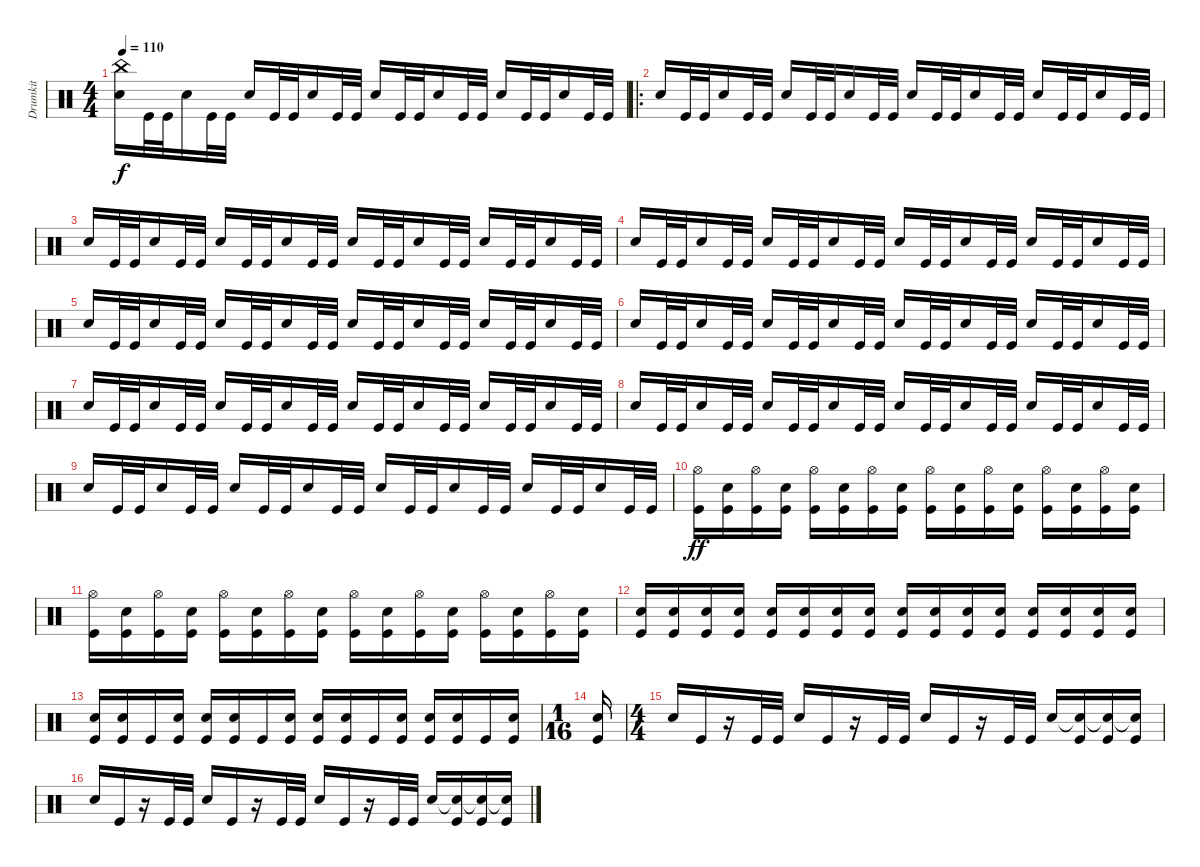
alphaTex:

\track ("Drumkit" "Drumkit") {instrument percussion}
\staff {score}
\articulation defaults
\ts (4 4)
\tempo 110
\clef neutral
\ks c
("Snare (hit) 2" "China (hit)").16{dy f} "Kick (hit)".32 "Kick (hit)".32 "Snare (hit) 2".16 "Kick (hit)".32 "Kick (hit)".32 "Snare (hit) 2".16 "Kick (hit)".32 "Kick (hit)".32 "Snare (hit) 2".16 "Kick (hit)".32 "Kick (hit)".32 "Snare (hit) 2".16 "Kick (hit)".32 "Kick (hit)".32 "Snare (hit) 2".16 "Kick (hit)".32 "Kick (hit)".32 "Snare (hit) 2".16 "Kick (hit)".32 "Kick (hit)".32 "Snare (hit) 2".16 "Kick (hit)".32 "Kick (hit)".32 |
\ro "Snare (hit) 2".16 "Kick (hit)".32 "Kick (hit)".32 "Snare (hit) 2".16 "Kick (hit)".32 "Kick (hit)".32 "Snare (hit) 2".16 "Kick (hit)".32 "Kick (hit)".32 "Snare (hit) 2".16 "Kick (hit)".32 "Kick (hit)".32 "Snare (hit) 2".16 "Kick (hit)".32 "Kick (hit)".32 "Snare (hit) 2".16 "Kick (hit)".32 "Kick (hit)".32 "Snare (hit) 2".16 "Kick (hit)".32 "Kick (hit)".32 "Snare (hit) 2".16 "Kick (hit)".32 "Kick (hit)".32
|
"Snare (hit) 2".16 "Kick (hit)".32 "Kick (hit)".32 "Snare (hit) 2".16 "Kick (hit)".32 "Kick (hit)".32 "Snare (hit) 2".16 "Kick (hit)".32 "Kick (hit)".32 "Snare (hit) 2".16 "Kick (hit)".32 "Kick (hit)".32 "Snare (hit) 2".16 "Kick (hit)".32 "Kick (hit)".32 "Snare (hit) 2".16 "Kick (hit)".32 "Kick (hit)".32 "Snare (hit) 2".16 "Kick (hit)".32 "Kick (hit)".32 "Snare (hit) 2".16 "Kick (hit)".32 "Kick (hit)".32 |
"Snare (hit) 2".16 "Kick (hit)".32 "Kick (hit)".32 "Snare (hit) 2".16 "Kick (hit)".32 "Kick (hit)".32 "Snare (hit) 2".16 "Kick (hit)".32 "Kick (hit)".32 "Snare (hit) 2".16 "Kick (hit)".32 "Kick (hit)".32 "Snare (hit) 2".16 "Kick (hit)".32 "Kick (hit)".32 "Snare (hit) 2".16 "Kick (hit)".32 "Kick (hit)".32 "Snare (hit) 2".16 "Kick (hit)".32 "Kick (hit)".32 "Snare (hit) 2".16 "Kick (hit)".32 "Kick (hit)".32 |
"Snare (hit) 2".16 "Kick (hit)".32 "Kick (hit)".32 "Snare (hit) 2".16 "Kick (hit)".32 "Kick (hit)".32 "Snare (hit) 2".16 "Kick (hit)".32 "Kick (hit)".32 "Snare (hit) 2".16 "Kick (hit)".32 "Kick (hit)".32 "Snare (hit) 2".16 "Kick (hit)".32 "Kick (hit)".32 "Snare (hit) 2".16 "Kick (hit)".32 "Kick (hit)".32 "Snare (hit) 2".16 "Kick (hit)".32 "Kick (hit)".32 "Snare (hit) 2".16 "Kick (hit)".32 "Kick (hit)".32 |
"Snare (hit) 2".16 "Kick (hit)".32 "Kick (hit)".32 "Snare (hit) 2".16 "Kick (hit)".32 "Kick (hit)".32 "Snare (hit) 2".16 "Kick (hit)".32 "Kick (hit)".32 "Snare (hit) 2".16 "Kick (hit)".32 "Kick (hit)".32 "Snare (hit) 2".16 "Kick (hit)".32 "Kick (hit)".32 "Snare (hit) 2".16 "Kick (hit)".32 "Kick (hit)".32 "Snare (hit) 2".16 "Kick (hit)".32 "Kick (hit)".32 "Snare (hit) 2".16 "Kick (hit)".32 "Kick (hit)".32 |
"Snare (hit) 2".16 "Kick (hit)".32 "Kick (hit)".32 "Snare (hit) 2".16 "Kick (hit)".32 "Kick (hit)".32 "Snare (hit) 2".16 "Kick (hit)".32 "Kick (hit)".32 "Snare (hit) 2".16 "Kick (hit)".32 "Kick (hit)".32 "Snare (hit) 2".16 "Kick (hit)".32 "Kick (hit)".32 "Snare (hit) 2".16 "Kick (hit)".32 "Kick (hit)".32 "Snare (hit) 2".16 "Kick (hit)".32 "Kick (hit)".32 "Snare (hit) 2".16 "Kick (hit)".32 "Kick (hit)".32 |
"Snare (hit) 2".16 "Kick (hit)".32 "Kick (hit)".32 "Snare (hit) 2".16 "Kick (hit)".32 "Kick (hit)".32 "Snare (hit) 2".16 "Kick (hit)".32 "Kick (hit)".32 "Snare (hit) 2".16 "Kick (hit)".32 "Kick (hit)".32 "Snare (hit) 2".16 "Kick (hit)".32 "Kick (hit)".32 "Snare (hit) 2".16 "Kick (hit)".32 "Kick (hit)".32 "Snare (hit) 2".16 "Kick (hit)".32 "Kick (hit)".32 "Snare (hit) 2".16 "Kick (hit)".32 "Kick (hit)".32 |
"Snare (hit) 2".16 "Kick (hit)".32 "Kick (hit)".32 "Snare (hit) 2".16 "Kick (hit)".32 "Kick (hit)".32 "Snare (hit) 2".16 "Kick (hit)".32 "Kick (hit)".32 "Snare (hit) 2".16 "Kick (hit)".32 "Kick (hit)".32 "Snare (hit) 2".16 "Kick (hit)".32 "Kick (hit)".32 "Snare (hit) 2".16 "Kick (hit)".32 "Kick (hit)".32 "Snare (hit) 2".16 "Kick (hit)".32 "Kick (hit)".32 "Snare (hit) 2".16 "Kick (hit)".32 "Kick (hit)".32 |
("Kick (hit)" "Hi-Hat (open)").16{dy ff} ("Snare (hit) 2" "Kick (hit)").16 ("Kick (hit)" "Hi-Hat (open)").16 ("Snare (hit) 2" "Kick (hit)").16 ("Kick (hit)" "Hi-Hat (open)").16 ("Snare (hit) 2" "Kick (hit)").16 ("Kick (hit)" "Hi-Hat (open)").16 ("Snare (hit) 2" "Kick (hit)").16 ("Kick (hit)" "Hi-Hat (open)").16 ("Snare (hit) 2" "Kick (hit)").16 ("Kick (hit)" "Hi-Hat (open)").16 ("Snare (hit) 2" "Kick (hit)").16 ("Kick (hit)" "Hi-Hat (open)").16 ("Snare (hit) 2" "Kick (hit)").16 ("Kick (hit)" "Hi-Hat (open)").16 ("Snare (hit) 2" "Kick (hit)").16 |
("Kick (hit)" "Hi-Hat (open)").16 ("Snare (hit) 2" "Kick (hit)").16 ("Kick (hit)" "Hi-Hat (open)").16 ("Snare (hit) 2" "Kick (hit)").16 ("Kick (hit)" "Hi-Hat (open)").16 ("Snare (hit) 2" "Kick (hit)").16 ("Kick (hit)" "Hi-Hat (open)").16 ("Snare (hit) 2" "Kick (hit)").16 ("Kick (hit)" "Hi-Hat (open)").16 ("Snare (hit) 2" "Kick (hit)").16 ("Kick (hit)" "Hi-Hat (open)").16 ("Snare (hit) 2" "Kick (hit)").16 ("Kick (hit)" "Hi-Hat (open)").16 ("Snare (hit) 2" "Kick (hit)").16 ("Kick (hit)" "Hi-Hat (open)").16 ("Snare (hit) 2" "Kick (hit)").16 |
("Kick (hit)" "Snare (hit) 2").16 ("Snare (hit) 2" "Kick (hit)").16 ("Kick (hit)" "Snare (hit) 2").16 ("Snare (hit) 2" "Kick (hit)").16 ("Kick (hit)" "Snare (hit) 2").16 ("Snare (hit) 2" "Kick (hit)").16 ("Kick (hit)" "Snare (hit) 2").16 ("Snare (hit) 2" "Kick (hit)").16 ("Kick (hit)" "Snare (hit) 2").16 ("Snare (hit) 2" "Kick (hit)").16 ("Kick (hit)" "Snare (hit) 2").16 ("Snare (hit) 2" "Kick (hit)").16 ("Kick (hit)" "Snare (hit) 2").16 ("Snare (hit) 2" "Kick (hit)").16 ("Kick (hit)" "Snare (hit) 2").16 ("Snare (hit) 2" "Kick (hit)").16 |
("Kick (hit)" "Snare (hit) 2").16 ("Snare (hit) 2" "Kick (hit)").16 "Kick (hit)".16 ("Snare (hit) 2" "Kick (hit)").16 ("Kick (hit)" "Snare (hit) 2").16 ("Snare (hit) 2" "Kick (hit)").16 "Kick (hit)".16 ("Snare (hit) 2" "Kick (hit)").16 ("Kick (hit)" "Snare (hit) 2").16 ("Snare (hit) 2" "Kick (hit)").16 "Kick (hit)".16 ("Snare (hit) 2" "Kick (hit)").16 ("Kick (hit)" "Snare (hit) 2").16 ("Snare (hit) 2" "Kick (hit)").16 "Kick (hit)".16 ("Snare (hit) 2" "Kick (hit)").16 |
\ts (1 16)
("Snare (hit) 2" "Kick (hit)").16 |
\ts (4 4)
"Snare (hit) 2".16 "Kick (hit)".16 r.16 "Kick (hit)".32 "Kick (hit)".32 "Snare (hit) 2".16 "Kick (hit)".16 r.16 "Kick (hit)".32 "Kick (hit)".32 "Snare (hit) 2".16 "Kick (hit)".16 r.16 "Kick (hit)".32 "Kick (hit)".32 "Snare (hit) 2".16 ("Snare (hit) 2"{t} "Kick (hit)").16 ("Snare (hit) 2"{t} "Kick (hit)").16 ("Snare (hit) 2"{t} "Kick (hit)").16 |
"Snare (hit) 2".16 "Kick (hit)".16 r.16 "Kick (hit)".32 "Kick (hit)".32 "Snare (hit) 2".16 "Kick (hit)".16 r.16 "Kick (hit)".32 "Kick (hit)".32 "Snare (hit) 2".16 "Kick (hit)".16 r.16 "Kick (hit)".32 "Kick (hit)".32 "Snare (hit) 2".16 ("Snare (hit) 2"{t} "Kick (hit)").16 ("Snare (hit) 2"{t} "Kick (hit)").16 ("Snare (hit) 2"{t} "Kick (hit)").16
